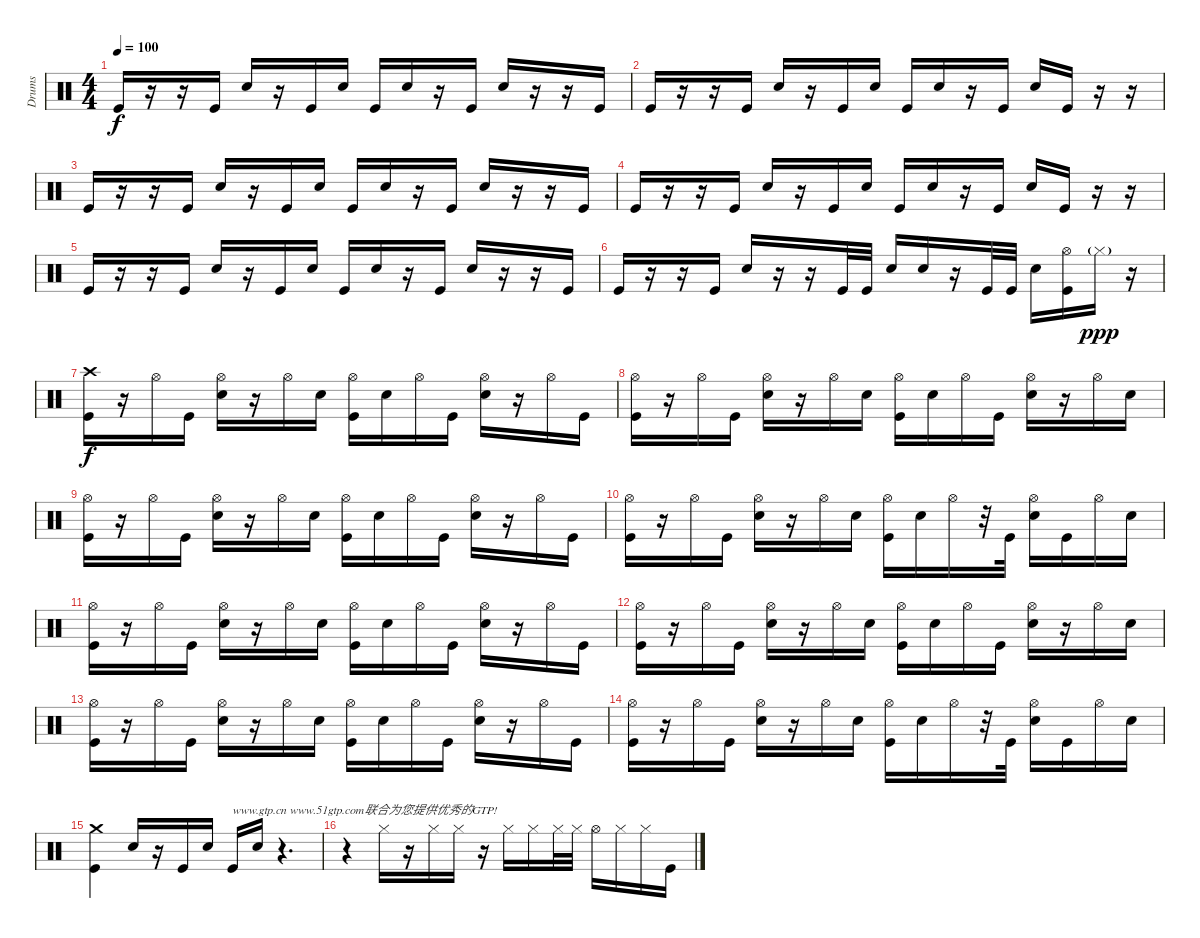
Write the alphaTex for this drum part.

\track ("Drums" "Drums") {instrument percussion}
\staff {score}
\articulation defaults
\ts (4 4)
\tempo 100
\clef neutral
\ks c "Kick (hit)".16{dy f}
r.16 r.16 "Kick (hit)".16 "Electric Snare (hit)".16 r.16 "Kick (hit)".16 "Electric Snare (hit)".16 "Kick (hit)".16 "Electric Snare (hit)".16 r.16 "Kick (hit)".16 "Electric Snare (hit)".16 r.16 r.16 "Kick (hit)".16 |
"Kick (hit)".16 r.16 r.16 "Kick (hit)".16 "Electric Snare (hit)".16 r.16 "Kick (hit)".16 "Electric Snare (hit)".16 "Kick (hit)".16 "Electric Snare (hit)".16 r.16 "Kick (hit)".16 "Electric Snare (hit)".16 "Kick (hit)".16 r.16 r.16 |
"Kick (hit)".16 r.16 r.16 "Kick (hit)".16 "Electric Snare (hit)".16 r.16 "Kick (hit)".16 "Electric Snare (hit)".16 "Kick (hit)".16 "Electric Snare (hit)".16 r.16 "Kick (hit)".16 "Electric Snare (hit)".16 r.16 r.16 "Kick (hit)".16 |
"Kick (hit)".16 r.16 r.16 "Kick (hit)".16 "Electric Snare (hit)".16 r.16 "Kick (hit)".16 "Electric Snare (hit)".16 "Kick (hit)".16 "Electric Snare (hit)".16 r.16 "Kick (hit)".16 "Electric Snare (hit)".16 "Kick (hit)".16 r.16 r.16 |
"Kick (hit)".16 r.16 r.16 "Kick (hit)".16 "Electric Snare (hit)".16 r.16 "Kick (hit)".16 "Electric Snare (hit)".16 "Kick (hit)".16 "Electric Snare (hit)".16 r.16 "Kick (hit)".16 "Electric Snare (hit)".16 r.16 r.16 "Kick (hit)".16 |
"Kick (hit)".16 r.16 r.16 "Kick (hit)".16 "Electric Snare (hit)".16 r.16 r.16 "Kick (hit)".32 "Kick (hit)".32 "Electric Snare (hit)".16 "Electric Snare (hit)".16 r.16 "Kick (hit)".32 "Kick (hit)".32 "Electric Snare (hit)".16 ("Hi-Hat (open)" "Kick (hit)").16 "Hi-Hat (closed)"{g}.16{dy ppp} r.16 |
("Crash high (hit)" "Kick (hit)").16{dy f} r.16 "Hi-Hat (open)".16 "Kick (hit)".16 ("Hi-Hat (open)" "Electric Snare (hit)").16 r.16 "Hi-Hat (open)".16 "Electric Snare (hit)".16 ("Hi-Hat (open)" "Kick (hit)").16 "Electric Snare (hit)".16 "Hi-Hat (open)".16 "Kick (hit)".16 ("Hi-Hat (open)" "Electric Snare (hit)").16 r.16 "Hi-Hat (open)".16 "Kick (hit)".16 |
("Hi-Hat (open)" "Kick (hit)").16 r.16 "Hi-Hat (open)".16 "Kick (hit)".16 ("Hi-Hat (open)" "Electric Snare (hit)").16 r.16 "Hi-Hat (open)".16 "Electric Snare (hit)".16 ("Hi-Hat (open)" "Kick (hit)").16 "Electric Snare (hit)".16 "Hi-Hat (open)".16 "Kick (hit)".16 ("Hi-Hat (open)" "Electric Snare (hit)").16 r.16 "Hi-Hat (open)".16 "Electric Snare (hit)".16 |
("Hi-Hat (open)" "Kick (hit)").16 r.16 "Hi-Hat (open)".16 "Kick (hit)".16 ("Hi-Hat (open)" "Electric Snare (hit)").16 r.16 "Hi-Hat (open)".16 "Electric Snare (hit)".16 ("Hi-Hat (open)" "Kick (hit)").16 "Electric Snare (hit)".16 "Hi-Hat (open)".16 "Kick (hit)".16 ("Hi-Hat (open)" "Electric Snare (hit)").16 r.16 "Hi-Hat (open)".16 "Kick (hit)".16 |
("Hi-Hat (open)" "Kick (hit)").16 r.16 "Hi-Hat (open)".16 "Kick (hit)".16 ("Hi-Hat (open)" "Electric Snare (hit)").16 r.16 "Hi-Hat (open)".16 "Electric Snare (hit)".16 ("Hi-Hat (open)" "Kick (hit)").16 "Electric Snare (hit)".16 "Hi-Hat (open)".16 r.32 "Kick (hit)".32 ("Hi-Hat (open)" "Electric Snare (hit)").16 "Kick (hit)".16 "Hi-Hat (open)".16 "Electric Snare (hit)".16 |
("Hi-Hat (open)" "Kick (hit)").16 r.16 "Hi-Hat (open)".16 "Kick (hit)".16 ("Hi-Hat (open)" "Electric Snare (hit)").16 r.16 "Hi-Hat (open)".16 "Electric Snare (hit)".16 ("Hi-Hat (open)" "Kick (hit)").16 "Electric Snare (hit)".16 "Hi-Hat (open)".16 "Kick (hit)".16 ("Hi-Hat (open)" "Electric Snare (hit)").16 r.16 "Hi-Hat (open)".16 "Kick (hit)".16 |
("Hi-Hat (open)" "Kick (hit)").16 r.16 "Hi-Hat (open)".16 "Kick (hit)".16 ("Hi-Hat (open)" "Electric Snare (hit)").16 r.16 "Hi-Hat (open)".16 "Electric Snare (hit)".16 ("Hi-Hat (open)" "Kick (hit)").16 "Electric Snare (hit)".16 "Hi-Hat (open)".16 "Kick (hit)".16 ("Hi-Hat (open)" "Electric Snare (hit)").16 r.16 "Hi-Hat (open)".16 "Electric Snare (hit)".16 |
("Hi-Hat (open)" "Kick (hit)").16 r.16 "Hi-Hat (open)".16 "Kick (hit)".16 ("Hi-Hat (open)" "Electric Snare (hit)").16 r.16 "Hi-Hat (open)".16 "Electric Snare (hit)".16 ("Hi-Hat (open)" "Kick (hit)").16 "Electric Snare (hit)".16 "Hi-Hat (open)".16 "Kick (hit)".16 ("Hi-Hat (open)" "Electric Snare (hit)").16 r.16 "Hi-Hat (open)".16 "Kick (hit)".16 |
("Hi-Hat (open)" "Kick (hit)").16 r.16 "Hi-Hat (open)".16 "Kick (hit)".16 ("Hi-Hat (open)" "Electric Snare (hit)").16 r.16 "Hi-Hat (open)".16 "Electric Snare (hit)".16 ("Hi-Hat (open)" "Kick (hit)").16 "Electric Snare (hit)".16 "Hi-Hat (open)".16 r.32 "Kick (hit)".32 ("Hi-Hat (open)" "Electric Snare (hit)").16 "Kick (hit)".16 "Hi-Hat (open)".16 "Electric Snare (hit)".16 |
("Crash medium (hit)" "Kick (hit)").4 "Electric Snare (hit)".16 r.16 "Kick (hit)".16 "Electric Snare (hit)".16 "Kick (hit)".16{txt "www.gtp.cn www.51gtp.com联合为您提供优秀的GTP!"} "Electric Snare (hit)".16 r.4{d} |
r.4 "Hi-Hat (closed)".16 r.16 "Hi-Hat (closed)".16 "Hi-Hat (closed)".16 r.16 "Hi-Hat (closed)".16 "Hi-Hat (closed)".16 "Hi-Hat (closed)".32 "Hi-Hat (closed)".32 "Hi-Hat (open)".16 "Hi-Hat (closed)".16 "Hi-Hat (closed)".16 "Kick (hit)".16
